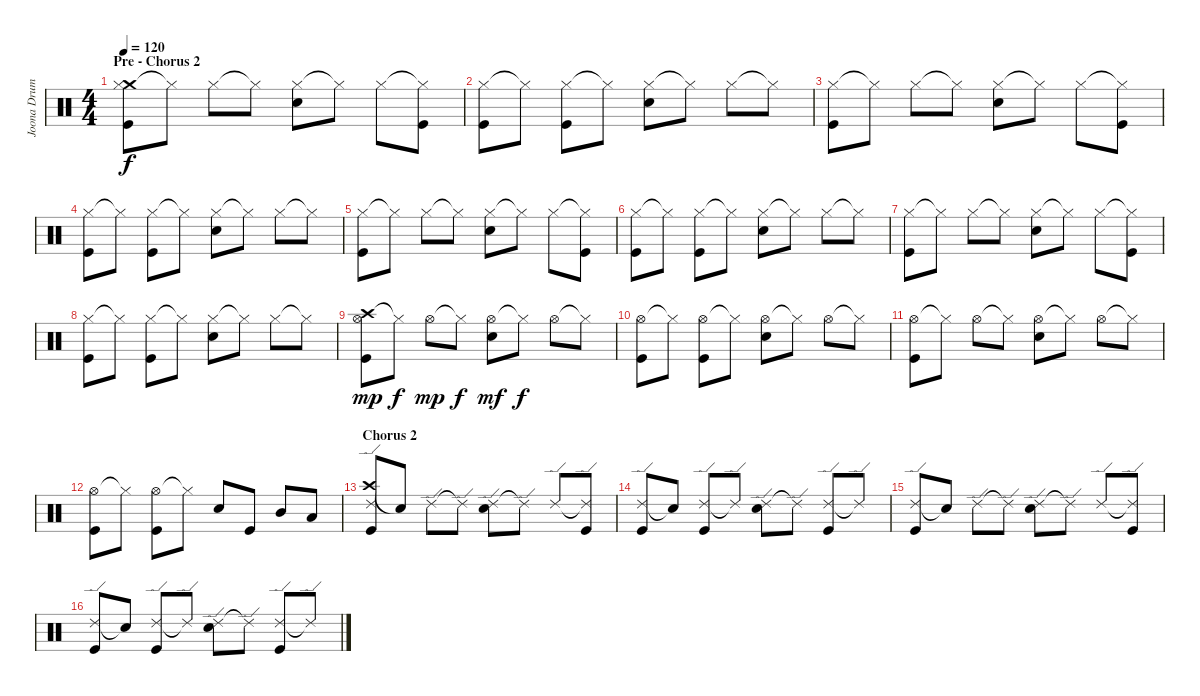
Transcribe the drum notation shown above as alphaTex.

\track ("Joona Drums" "Joona Drum") {instrument percussion}
\staff {score}
\articulation defaults
\ts (4 4)
\section ("" "Pre - Chorus 2")
\tempo 120
\clef neutral
\ks c
("Crash medium (hit)" "Hi-Hat (closed)" "Kick (hit)").8{dy f} "Hi-Hat (closed)"{t}.8 "Hi-Hat (closed)".8 "Hi-Hat (closed)"{t}.8 ("Hi-Hat (closed)" "Snare (hit) 2").8 "Hi-Hat (closed)"{t}.8 "Hi-Hat (closed)".8 ("Hi-Hat (closed)"{t} "Kick (hit)").8 |
("Hi-Hat (closed)" "Kick (hit)").8 "Hi-Hat (closed)"{t}.8 ("Hi-Hat (closed)" "Kick (hit)").8 "Hi-Hat (closed)"{t}.8 ("Hi-Hat (closed)" "Snare (hit) 2").8 "Hi-Hat (closed)"{t}.8 "Hi-Hat (closed)".8 "Hi-Hat (closed)"{t}.8 |
("Hi-Hat (closed)" "Kick (hit)").8 "Hi-Hat (closed)"{t}.8 "Hi-Hat (closed)".8 "Hi-Hat (closed)"{t}.8 ("Hi-Hat (closed)" "Snare (hit) 2").8 "Hi-Hat (closed)"{t}.8 "Hi-Hat (closed)".8 ("Hi-Hat (closed)"{t} "Kick (hit)").8 |
("Hi-Hat (closed)" "Kick (hit)").8 "Hi-Hat (closed)"{t}.8 ("Hi-Hat (closed)" "Kick (hit)").8 "Hi-Hat (closed)"{t}.8 ("Hi-Hat (closed)" "Snare (hit) 2").8 "Hi-Hat (closed)"{t}.8 "Hi-Hat (closed)".8 "Hi-Hat (closed)"{t}.8 |
("Hi-Hat (closed)" "Kick (hit)").8 "Hi-Hat (closed)"{t}.8 "Hi-Hat (closed)".8 "Hi-Hat (closed)"{t}.8 ("Hi-Hat (closed)" "Snare (hit) 2").8 "Hi-Hat (closed)"{t}.8 "Hi-Hat (closed)".8 ("Hi-Hat (closed)"{t} "Kick (hit)").8 |
("Hi-Hat (closed)" "Kick (hit)").8 "Hi-Hat (closed)"{t}.8 ("Hi-Hat (closed)" "Kick (hit)").8 "Hi-Hat (closed)"{t}.8 ("Hi-Hat (closed)" "Snare (hit) 2").8 "Hi-Hat (closed)"{t}.8 "Hi-Hat (closed)".8 "Hi-Hat (closed)"{t}.8 |
("Hi-Hat (closed)" "Kick (hit)").8 "Hi-Hat (closed)"{t}.8 "Hi-Hat (closed)".8 "Hi-Hat (closed)"{t}.8 ("Hi-Hat (closed)" "Snare (hit) 2").8 "Hi-Hat (closed)"{t}.8 "Hi-Hat (closed)".8 ("Hi-Hat (closed)"{t} "Kick (hit)").8 |
("Hi-Hat (closed)" "Kick (hit)").8 "Hi-Hat (closed)"{t}.8 ("Hi-Hat (closed)" "Kick (hit)").8 "Hi-Hat (closed)"{t}.8 ("Hi-Hat (closed)" "Snare (hit) 2").8 "Hi-Hat (closed)"{t}.8 "Hi-Hat (closed)".8 "Hi-Hat (closed)"{t}.8 |
("Crash high (hit)" "Hi-Hat (open)" "Kick (hit)").8{dy mp} "Hi-Hat (closed)"{t}.8{dy f} "Hi-Hat (open)".8{dy mp} "Hi-Hat (closed)"{t}.8{dy f} ("Hi-Hat (open)" "Snare (hit) 2").8{dy mf} "Hi-Hat (closed)"{t}.8{dy f} "Hi-Hat (open)".8 "Hi-Hat (closed)"{t}.8 |
("Hi-Hat (open)" "Kick (hit)").8 "Hi-Hat (closed)"{t}.8 ("Hi-Hat (open)" "Kick (hit)").8 "Hi-Hat (closed)"{t}.8 ("Hi-Hat (open)" "Snare (hit) 2").8 "Hi-Hat (closed)"{t}.8 "Hi-Hat (open)".8 "Hi-Hat (closed)"{t}.8 |
("Hi-Hat (open)" "Kick (hit)").8 "Hi-Hat (closed)"{t}.8 "Hi-Hat (open)".8 "Hi-Hat (closed)"{t}.8 ("Hi-Hat (open)" "Snare (hit) 2").8 "Hi-Hat (closed)"{t}.8 "Hi-Hat (open)".8 "Hi-Hat (closed)"{t}.8 |
("Hi-Hat (open)" "Kick (hit)").8 "Hi-Hat (closed)"{t}.8 ("Hi-Hat (open)" "Kick (hit)").8 "Hi-Hat (closed)"{t}.8 "Snare (hit) 2".8 "Kick (hit)".8 "Mid Tom (hit)".8 "Low Tom (hit)".8 |
\section ("" "Chorus 2")
("Crash high (hit)" "Ride (edge) 2" "Kick (hit)").8 "Snare (hit)"{t}.8 "Ride (edge) 2".8 "Ride (edge) 2"{t}.8 ("Ride (edge) 2" "Snare (hit) 2").8 "Ride (edge) 2"{t}.8 "Ride (edge) 2".8 ("Ride (edge) 2"{t} "Kick (hit)").8 |
("Ride (edge) 2" "Kick (hit)").8 "Snare (hit)"{t}.8 ("Ride (edge) 2" "Kick (hit)").8 "Ride (edge) 2"{t}.8 ("Ride (edge) 2" "Snare (hit) 2").8 "Ride (edge) 2"{t}.8 ("Ride (edge) 2" "Kick (hit)").8 "Ride (edge) 2"{t}.8 |
("Ride (edge) 2" "Kick (hit)").8 "Snare (hit)"{t}.8 "Ride (edge) 2".8 "Ride (edge) 2"{t}.8 ("Ride (edge) 2" "Snare (hit) 2").8 "Ride (edge) 2"{t}.8 "Ride (edge) 2".8 ("Ride (edge) 2"{t} "Kick (hit)").8 |
("Ride (edge) 2" "Kick (hit)").8 "Snare (hit)"{t}.8 ("Ride (edge) 2" "Kick (hit)").8 "Ride (edge) 2"{t}.8 ("Ride (edge) 2" "Snare (hit) 2").8 "Ride (edge) 2"{t}.8 ("Ride (edge) 2" "Kick (hit)").8 "Ride (edge) 2"{t}.8
